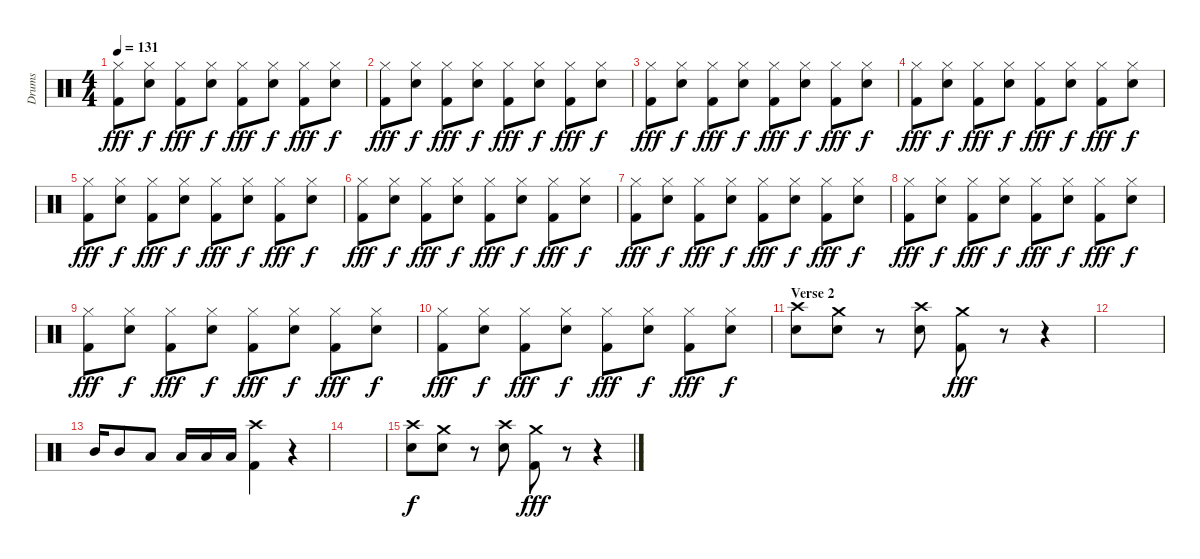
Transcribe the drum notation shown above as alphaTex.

\track ("Drums" "Drums") {instrument percussion}
\staff {score}
\articulation defaults
\ts (4 4)
\tempo 131
\clef neutral
\ks c
("Hi-Hat (closed)" "Kick (hit) 2").8{dy fff} ("Hi-Hat (closed)" "Electric Snare (hit)").8{dy f} ("Hi-Hat (closed)" "Kick (hit) 2").8{dy fff} ("Hi-Hat (closed)" "Electric Snare (hit)").8{dy f} ("Hi-Hat (closed)" "Kick (hit) 2").8{dy fff} ("Hi-Hat (closed)" "Electric Snare (hit)").8{dy f} ("Hi-Hat (closed)" "Kick (hit) 2").8{dy fff} ("Hi-Hat (closed)" "Electric Snare (hit)").8{dy f} |
("Hi-Hat (closed)" "Kick (hit) 2").8{dy fff} ("Hi-Hat (closed)" "Electric Snare (hit)").8{dy f} ("Hi-Hat (closed)" "Kick (hit) 2").8{dy fff} ("Hi-Hat (closed)" "Electric Snare (hit)").8{dy f} ("Hi-Hat (closed)" "Kick (hit) 2").8{dy fff} ("Hi-Hat (closed)" "Electric Snare (hit)").8{dy f} ("Hi-Hat (closed)" "Kick (hit) 2").8{dy fff} ("Hi-Hat (closed)" "Electric Snare (hit)").8{dy f} |
("Hi-Hat (closed)" "Kick (hit) 2").8{dy fff} ("Hi-Hat (closed)" "Electric Snare (hit)").8{dy f} ("Hi-Hat (closed)" "Kick (hit) 2").8{dy fff} ("Hi-Hat (closed)" "Electric Snare (hit)").8{dy f} ("Hi-Hat (closed)" "Kick (hit) 2").8{dy fff} ("Hi-Hat (closed)" "Electric Snare (hit)").8{dy f} ("Hi-Hat (closed)" "Kick (hit) 2").8{dy fff} ("Hi-Hat (closed)" "Electric Snare (hit)").8{dy f} |
("Hi-Hat (closed)" "Kick (hit) 2").8{dy fff} ("Hi-Hat (closed)" "Electric Snare (hit)").8{dy f} ("Hi-Hat (closed)" "Kick (hit) 2").8{dy fff} ("Hi-Hat (closed)" "Electric Snare (hit)").8{dy f} ("Hi-Hat (closed)" "Kick (hit) 2").8{dy fff} ("Hi-Hat (closed)" "Electric Snare (hit)").8{dy f} ("Hi-Hat (closed)" "Kick (hit) 2").8{dy fff} ("Hi-Hat (closed)" "Electric Snare (hit)").8{dy f} |
("Hi-Hat (closed)" "Kick (hit) 2").8{dy fff} ("Hi-Hat (closed)" "Electric Snare (hit)").8{dy f} ("Hi-Hat (closed)" "Kick (hit) 2").8{dy fff} ("Hi-Hat (closed)" "Electric Snare (hit)").8{dy f} ("Hi-Hat (closed)" "Kick (hit) 2").8{dy fff} ("Hi-Hat (closed)" "Electric Snare (hit)").8{dy f} ("Hi-Hat (closed)" "Kick (hit) 2").8{dy fff} ("Hi-Hat (closed)" "Electric Snare (hit)").8{dy f} |
("Hi-Hat (closed)" "Kick (hit) 2").8{dy fff} ("Hi-Hat (closed)" "Electric Snare (hit)").8{dy f} ("Hi-Hat (closed)" "Kick (hit) 2").8{dy fff} ("Hi-Hat (closed)" "Electric Snare (hit)").8{dy f} ("Hi-Hat (closed)" "Kick (hit) 2").8{dy fff} ("Hi-Hat (closed)" "Electric Snare (hit)").8{dy f} ("Hi-Hat (closed)" "Kick (hit) 2").8{dy fff} ("Hi-Hat (closed)" "Electric Snare (hit)").8{dy f} |
("Hi-Hat (closed)" "Kick (hit) 2").8{dy fff} ("Hi-Hat (closed)" "Electric Snare (hit)").8{dy f} ("Hi-Hat (closed)" "Kick (hit) 2").8{dy fff} ("Hi-Hat (closed)" "Electric Snare (hit)").8{dy f} ("Hi-Hat (closed)" "Kick (hit) 2").8{dy fff} ("Hi-Hat (closed)" "Electric Snare (hit)").8{dy f} ("Hi-Hat (closed)" "Kick (hit) 2").8{dy fff} ("Hi-Hat (closed)" "Electric Snare (hit)").8{dy f} |
("Hi-Hat (closed)" "Kick (hit) 2").8{dy fff} ("Hi-Hat (closed)" "Electric Snare (hit)").8{dy f} ("Hi-Hat (closed)" "Kick (hit) 2").8{dy fff} ("Hi-Hat (closed)" "Electric Snare (hit)").8{dy f} ("Hi-Hat (closed)" "Kick (hit) 2").8{dy fff} ("Hi-Hat (closed)" "Electric Snare (hit)").8{dy f} ("Hi-Hat (closed)" "Kick (hit) 2").8{dy fff} ("Hi-Hat (closed)" "Electric Snare (hit)").8{dy f} |
("Hi-Hat (closed)" "Kick (hit) 2").8{dy fff} ("Hi-Hat (closed)" "Electric Snare (hit)").8{dy f} ("Hi-Hat (closed)" "Kick (hit) 2").8{dy fff} ("Hi-Hat (closed)" "Electric Snare (hit)").8{dy f} ("Hi-Hat (closed)" "Kick (hit) 2").8{dy fff} ("Hi-Hat (closed)" "Electric Snare (hit)").8{dy f} ("Hi-Hat (closed)" "Kick (hit) 2").8{dy fff} ("Hi-Hat (closed)" "Electric Snare (hit)").8{dy f} |
("Hi-Hat (closed)" "Kick (hit) 2").8{dy fff} ("Hi-Hat (closed)" "Electric Snare (hit)").8{dy f} ("Hi-Hat (closed)" "Kick (hit) 2").8{dy fff} ("Hi-Hat (closed)" "Electric Snare (hit)").8{dy f} ("Hi-Hat (closed)" "Kick (hit) 2").8{dy fff} ("Hi-Hat (closed)" "Electric Snare (hit)").8{dy f} ("Hi-Hat (closed)" "Kick (hit) 2").8{dy fff} ("Hi-Hat (closed)" "Electric Snare (hit)").8{dy f} |
\section ("" "Verse 2")
("Crash high (hit)" "Electric Snare (hit)").8 ("Crash medium (hit)" "Electric Snare (hit)").8 r.8 ("Crash high (hit)" "Electric Snare (hit)").8 ("Crash medium (hit)" "Kick (hit) 2").8{dy fff} r.8 r.4 |
|
"Mid Tom (hit)".16 "Mid Tom (hit)".8 "Low Tom (hit)".8 "Low Tom (hit)".16 "Low Floor Tom (hit)".16 "Low Floor Tom (hit)".16 ("Crash high (hit)" "Kick (hit) 2").4 r.4 |
|
("Crash high (hit)" "Electric Snare (hit)").8{dy f} ("Crash medium (hit)" "Electric Snare (hit)").8 r.8 ("Crash high (hit)" "Electric Snare (hit)").8 ("Crash medium (hit)" "Kick (hit) 2").8{dy fff} r.8 r.4
